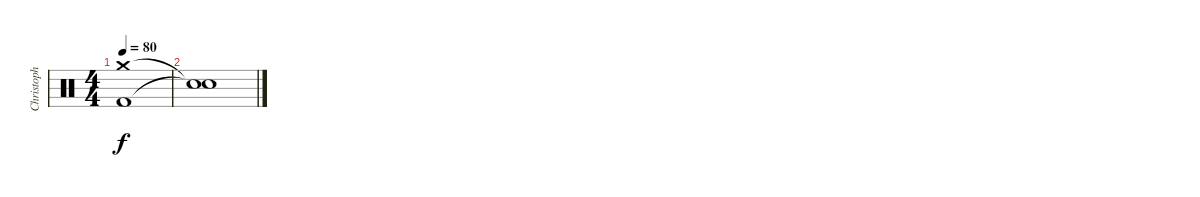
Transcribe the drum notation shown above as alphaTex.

\track ("Christoph Schneider // Drums" "Christoph ") {instrument percussion}
\staff {score}
\articulation defaults
\ts (4 4)
\tempo 80
\clef neutral
\ks c
("Crash medium (hit)" "Kick (hit) 2").1{dy f volume 0} |
("Snare (hit)"{t} "Snare (hit)"{t}).1
